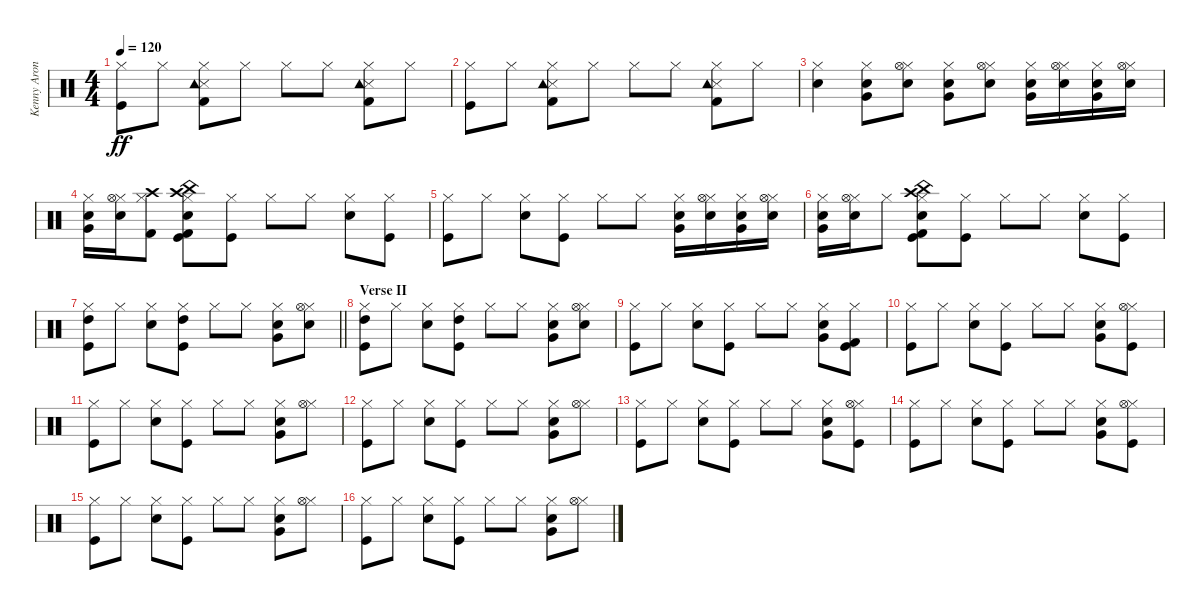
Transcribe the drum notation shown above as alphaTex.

\track ("Kenny Aronoff" "Kenny Aron") {instrument percussion}
\staff {score}
\articulation defaults
\ts (4 4)
\tempo 120
\clef neutral
\ks c
("Kick (hit)" "Hi-Hat (closed)").8{dy ff} "Hi-Hat (closed)".8 ("Kick (hit) 2" "Snare (side stick) 3" "Hi-Hat (closed)" "Tambourine (hit)").8 "Hi-Hat (closed)".8 "Hi-Hat (closed)".8 "Hi-Hat (closed)".8 ("Kick (hit) 2" "Snare (side stick) 3" "Hi-Hat (closed)" "Tambourine (hit)").8 "Hi-Hat (closed)".8 |
("Kick (hit)" "Hi-Hat (closed)").8 "Hi-Hat (closed)".8 ("Kick (hit) 2" "Snare (side stick) 3" "Hi-Hat (closed)" "Tambourine (hit)").8 "Hi-Hat (closed)".8 "Hi-Hat (closed)".8 "Hi-Hat (closed)".8 ("Kick (hit) 2" "Snare (side stick) 3" "Hi-Hat (closed)" "Tambourine (hit)").8 "Hi-Hat (closed)".8 |
("Snare (hit) 2" "Hi-Hat (closed)").4 ("Snare (hit) 2" "Hi-Hat (closed)" "Very Low Tom (hit)").8 ("Snare (hit) 2" "Hi-Hat (closed)" "Hi-Hat (open)").8 ("Snare (hit) 2" "Hi-Hat (closed)" "Very Low Tom (hit)").8 ("Snare (hit) 2" "Hi-Hat (closed)" "Hi-Hat (open)").8 ("Snare (hit) 2" "Hi-Hat (closed)" "Very Low Tom (hit)").16 ("Snare (hit) 2" "Hi-Hat (closed)" "Hi-Hat (open)").16 ("Snare (hit) 2" "Hi-Hat (closed)" "Very Low Tom (hit)").16 ("Snare (hit) 2" "Hi-Hat (closed)" "Hi-Hat (open)").16 |
("Snare (hit) 2" "Hi-Hat (closed)" "Very Low Tom (hit)").16 ("Snare (hit) 2" "Hi-Hat (closed)" "Hi-Hat (open)").16 ("Kick (hit) 2" "Hi-Hat (closed)" "Crash high (hit)").8 ("Snare (hit) 2" "Hi-Hat (closed)" "Kick (hit) 2" "Kick (hit)" "Crash high (hit)" "China (hit)").8 ("Kick (hit)" "Hi-Hat (closed)").8 "Hi-Hat (closed)".8 "Hi-Hat (closed)".8 ("Snare (hit) 2" "Hi-Hat (closed)").8 ("Kick (hit)" "Hi-Hat (closed)").8 |
("Kick (hit)" "Hi-Hat (closed)").8 "Hi-Hat (closed)".8 ("Snare (hit) 2" "Hi-Hat (closed)").8 ("Kick (hit)" "Hi-Hat (closed)").8 "Hi-Hat (closed)".8 "Hi-Hat (closed)".8 ("Snare (hit) 2" "Hi-Hat (closed)" "Very Low Tom (hit)").16 ("Snare (hit) 2" "Hi-Hat (closed)" "Hi-Hat (open)").16 ("Snare (hit) 2" "Hi-Hat (closed)" "Very Low Tom (hit)").16 ("Snare (hit) 2" "Hi-Hat (closed)" "Hi-Hat (open)").16 |
("Snare (hit) 2" "Hi-Hat (closed)" "Very Low Tom (hit)").16 ("Snare (hit) 2" "Hi-Hat (closed)" "Hi-Hat (open)").16 "Hi-Hat (closed)".8 ("Snare (hit) 2" "Hi-Hat (closed)" "Kick (hit) 2" "Kick (hit)" "Crash high (hit)" "China (hit)").8 ("Kick (hit)" "Hi-Hat (closed)").8 "Hi-Hat (closed)".8 "Hi-Hat (closed)".8 ("Snare (hit) 2" "Hi-Hat (closed)").8 ("Kick (hit)" "Hi-Hat (closed)").8 |
\barLineRight lightlight
("Kick (hit)" "Hi-Hat (closed)" "High Tom (hit)").8 "Hi-Hat (closed)".8 ("Snare (hit) 2" "Hi-Hat (closed)").8 ("Kick (hit)" "Hi-Hat (closed)" "High Tom (hit)").8 "Hi-Hat (closed)".8 "Hi-Hat (closed)".8 ("Snare (hit) 2" "Hi-Hat (closed)" "Very Low Tom (hit)").8 ("Snare (hit) 2" "Hi-Hat (closed)" "Hi-Hat (open)").8 |
\section ("" "Verse II")
("Kick (hit)" "Hi-Hat (closed)" "High Tom (hit)").8 "Hi-Hat (closed)".8 ("Snare (hit) 2" "Hi-Hat (closed)").8 ("Kick (hit)" "Hi-Hat (closed)" "High Tom (hit)").8 "Hi-Hat (closed)".8 "Hi-Hat (closed)".8 ("Snare (hit) 2" "Hi-Hat (closed)" "Very Low Tom (hit)").8 ("Snare (hit) 2" "Hi-Hat (closed)" "Hi-Hat (open)").8 |
("Kick (hit)" "Hi-Hat (closed)").8 "Hi-Hat (closed)".8 ("Snare (hit) 2" "Hi-Hat (closed)").8 ("Kick (hit)" "Hi-Hat (closed)").8 "Hi-Hat (closed)".8 "Hi-Hat (closed)".8 ("Snare (hit) 2" "Hi-Hat (closed)" "Very Low Tom (hit)").8 ("Kick (hit)" "Hi-Hat (closed)" "Kick (hit) 2").8 |
("Kick (hit)" "Hi-Hat (closed)").8 "Hi-Hat (closed)".8 ("Snare (hit) 2" "Hi-Hat (closed)").8 ("Kick (hit)" "Hi-Hat (closed)").8 "Hi-Hat (closed)".8 "Hi-Hat (closed)".8 ("Snare (hit) 2" "Hi-Hat (closed)" "Very Low Tom (hit)").8 ("Kick (hit)" "Hi-Hat (closed)" "Hi-Hat (open)").8 |
("Kick (hit)" "Hi-Hat (closed)").8 "Hi-Hat (closed)".8 ("Snare (hit) 2" "Hi-Hat (closed)").8 ("Kick (hit)" "Hi-Hat (closed)").8 "Hi-Hat (closed)".8 "Hi-Hat (closed)".8 ("Snare (hit) 2" "Hi-Hat (closed)" "Very Low Tom (hit)").8 ("Hi-Hat (closed)" "Hi-Hat (open)").8 |
("Kick (hit)" "Hi-Hat (closed)").8 "Hi-Hat (closed)".8 ("Snare (hit) 2" "Hi-Hat (closed)").8 ("Kick (hit)" "Hi-Hat (closed)").8 "Hi-Hat (closed)".8 "Hi-Hat (closed)".8 ("Snare (hit) 2" "Hi-Hat (closed)" "Very Low Tom (hit)").8 ("Hi-Hat (closed)" "Hi-Hat (open)").8 |
("Kick (hit)" "Hi-Hat (closed)").8 "Hi-Hat (closed)".8 ("Snare (hit) 2" "Hi-Hat (closed)").8 ("Kick (hit)" "Hi-Hat (closed)").8 "Hi-Hat (closed)".8 "Hi-Hat (closed)".8 ("Snare (hit) 2" "Hi-Hat (closed)" "Very Low Tom (hit)").8 ("Kick (hit)" "Hi-Hat (closed)" "Hi-Hat (open)").8 |
("Kick (hit)" "Hi-Hat (closed)").8 "Hi-Hat (closed)".8 ("Snare (hit) 2" "Hi-Hat (closed)").8 ("Kick (hit)" "Hi-Hat (closed)").8 "Hi-Hat (closed)".8 "Hi-Hat (closed)".8 ("Snare (hit) 2" "Hi-Hat (closed)" "Very Low Tom (hit)").8 ("Kick (hit)" "Hi-Hat (closed)" "Hi-Hat (open)").8 |
("Kick (hit)" "Hi-Hat (closed)").8 "Hi-Hat (closed)".8 ("Snare (hit) 2" "Hi-Hat (closed)").8 ("Kick (hit)" "Hi-Hat (closed)").8 "Hi-Hat (closed)".8 "Hi-Hat (closed)".8 ("Snare (hit) 2" "Hi-Hat (closed)" "Very Low Tom (hit)").8 ("Hi-Hat (closed)" "Hi-Hat (open)").8 |
("Kick (hit)" "Hi-Hat (closed)").8 "Hi-Hat (closed)".8 ("Snare (hit) 2" "Hi-Hat (closed)").8 ("Kick (hit)" "Hi-Hat (closed)").8 "Hi-Hat (closed)".8 "Hi-Hat (closed)".8 ("Snare (hit) 2" "Hi-Hat (closed)" "Very Low Tom (hit)").8 ("Hi-Hat (closed)" "Hi-Hat (open)").8
